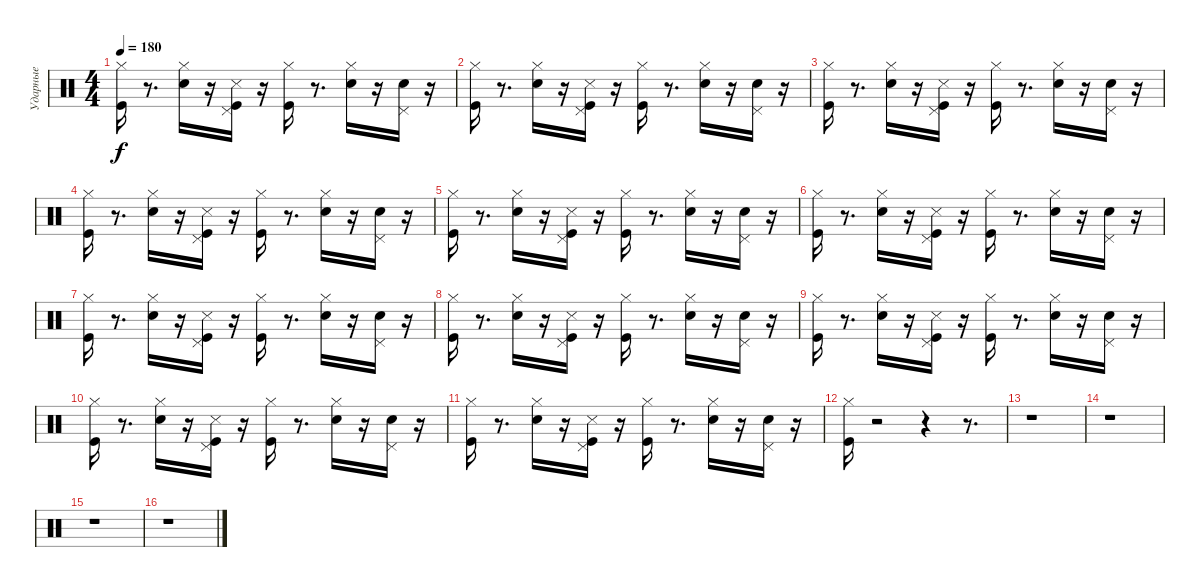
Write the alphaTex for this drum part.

\track ("Ударные" "Ударные") {instrument percussion}
\staff {score}
\articulation defaults
\ts (4 4)
\tempo 180
\clef neutral
\ks c
("Hi-Hat (closed)" "Kick (hit)").16{dy f} r.8{d} ("Hi-Hat (closed)" "Snare (hit) 2").16 r.16 ("Snare (side stick) 3" "Kick (hit)" "Pedal Hi-Hat (hit)").16 r.16 ("Hi-Hat (closed)" "Kick (hit)").16 r.8{d} ("Hi-Hat (closed)" "Snare (hit) 2").16 r.16 ("Snare (hit) 2" "Pedal Hi-Hat (hit)").16 r.16 |
("Hi-Hat (closed)" "Kick (hit)").16 r.8{d} ("Hi-Hat (closed)" "Snare (hit) 2").16 r.16 ("Snare (side stick) 3" "Kick (hit)" "Pedal Hi-Hat (hit)").16 r.16 ("Hi-Hat (closed)" "Kick (hit)").16 r.8{d} ("Hi-Hat (closed)" "Snare (hit) 2").16 r.16 ("Snare (hit) 2" "Pedal Hi-Hat (hit)").16 r.16 |
("Hi-Hat (closed)" "Kick (hit)").16 r.8{d} ("Hi-Hat (closed)" "Snare (hit) 2").16 r.16 ("Snare (side stick) 3" "Kick (hit)" "Pedal Hi-Hat (hit)").16 r.16 ("Hi-Hat (closed)" "Kick (hit)").16 r.8{d} ("Hi-Hat (closed)" "Snare (hit) 2").16 r.16 ("Snare (hit) 2" "Pedal Hi-Hat (hit)").16 r.16 |
("Hi-Hat (closed)" "Kick (hit)").16 r.8{d} ("Hi-Hat (closed)" "Snare (hit) 2").16 r.16 ("Snare (side stick) 3" "Kick (hit)" "Pedal Hi-Hat (hit)").16 r.16 ("Hi-Hat (closed)" "Kick (hit)").16 r.8{d} ("Hi-Hat (closed)" "Snare (hit) 2").16 r.16 ("Snare (hit) 2" "Pedal Hi-Hat (hit)").16 r.16 |
("Hi-Hat (closed)" "Kick (hit)").16 r.8{d} ("Hi-Hat (closed)" "Snare (hit) 2").16 r.16 ("Snare (side stick) 3" "Kick (hit)" "Pedal Hi-Hat (hit)").16 r.16 ("Hi-Hat (closed)" "Kick (hit)").16 r.8{d} ("Hi-Hat (closed)" "Snare (hit) 2").16 r.16 ("Snare (hit) 2" "Pedal Hi-Hat (hit)").16 r.16 |
("Hi-Hat (closed)" "Kick (hit)").16 r.8{d} ("Hi-Hat (closed)" "Snare (hit) 2").16 r.16 ("Snare (side stick) 3" "Kick (hit)" "Pedal Hi-Hat (hit)").16 r.16 ("Hi-Hat (closed)" "Kick (hit)").16 r.8{d} ("Hi-Hat (closed)" "Snare (hit) 2").16 r.16 ("Snare (hit) 2" "Pedal Hi-Hat (hit)").16 r.16 |
("Hi-Hat (closed)" "Kick (hit)").16 r.8{d} ("Hi-Hat (closed)" "Snare (hit) 2").16 r.16 ("Snare (side stick) 3" "Kick (hit)" "Pedal Hi-Hat (hit)").16 r.16 ("Hi-Hat (closed)" "Kick (hit)").16 r.8{d} ("Hi-Hat (closed)" "Snare (hit) 2").16 r.16 ("Snare (hit) 2" "Pedal Hi-Hat (hit)").16 r.16 |
("Hi-Hat (closed)" "Kick (hit)").16 r.8{d} ("Hi-Hat (closed)" "Snare (hit) 2").16 r.16 ("Snare (side stick) 3" "Kick (hit)" "Pedal Hi-Hat (hit)").16 r.16 ("Hi-Hat (closed)" "Kick (hit)").16 r.8{d} ("Hi-Hat (closed)" "Snare (hit) 2").16 r.16 ("Snare (hit) 2" "Pedal Hi-Hat (hit)").16 r.16 |
("Hi-Hat (closed)" "Kick (hit)").16 r.8{d} ("Hi-Hat (closed)" "Snare (hit) 2").16 r.16 ("Snare (side stick) 3" "Kick (hit)" "Pedal Hi-Hat (hit)").16 r.16 ("Hi-Hat (closed)" "Kick (hit)").16 r.8{d} ("Hi-Hat (closed)" "Snare (hit) 2").16 r.16 ("Snare (hit) 2" "Pedal Hi-Hat (hit)").16 r.16 |
("Hi-Hat (closed)" "Kick (hit)").16 r.8{d} ("Hi-Hat (closed)" "Snare (hit) 2").16 r.16 ("Snare (side stick) 3" "Kick (hit)" "Pedal Hi-Hat (hit)").16 r.16 ("Hi-Hat (closed)" "Kick (hit)").16 r.8{d} ("Hi-Hat (closed)" "Snare (hit) 2").16 r.16 ("Snare (hit) 2" "Pedal Hi-Hat (hit)").16 r.16 |
("Hi-Hat (closed)" "Kick (hit)").16 r.8{d} ("Hi-Hat (closed)" "Snare (hit) 2").16 r.16 ("Snare (side stick) 3" "Kick (hit)" "Pedal Hi-Hat (hit)").16 r.16 ("Hi-Hat (closed)" "Kick (hit)").16 r.8{d} ("Hi-Hat (closed)" "Snare (hit) 2").16 r.16 ("Snare (hit) 2" "Pedal Hi-Hat (hit)").16 r.16 |
("Hi-Hat (closed)" "Kick (hit)").16 r.2 r.4 r.8{d} |
r.1 |
r.1 |
r.1 |
r.1
